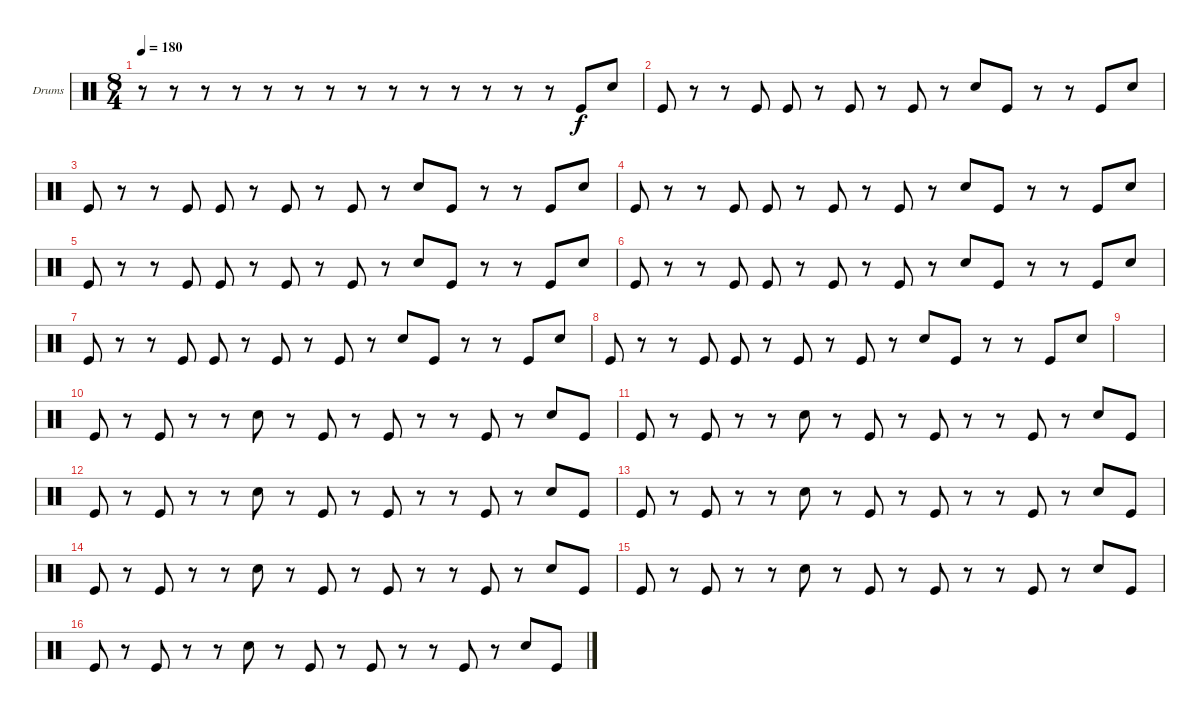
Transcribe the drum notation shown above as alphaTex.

\defaultSystemsLayout 4
\bracketExtendMode groupsimilarinstruments
\firstSystemTrackNameOrientation horizontal
\otherSystemsTrackNameOrientation horizontal
\track ("Drumkit" "Drums") {instrument percussion}
\staff {score}
\articulation defaults
\ts (8 4)
\tempo 180
\clef neutral
\ks c
r.8{dy f} r.8 r.8 r.8 r.8 r.8 r.8 r.8 r.8 r.8 r.8 r.8 r.8 r.8 "Kick (hit)".8 "Snare (hit) 2".8 |
"Kick (hit)".8 r.8 r.8 "Kick (hit)".8 "Kick (hit)".8 r.8 "Kick (hit)".8 r.8 "Kick (hit)".8 r.8 "Snare (hit) 2".8 "Kick (hit)".8 r.8 r.8 "Kick (hit)".8 "Snare (hit) 2".8 |
"Kick (hit)".8 r.8 r.8 "Kick (hit)".8 "Kick (hit)".8 r.8 "Kick (hit)".8 r.8 "Kick (hit)".8 r.8 "Snare (hit) 2".8 "Kick (hit)".8 r.8 r.8 "Kick (hit)".8 "Snare (hit) 2".8 |
"Kick (hit)".8 r.8 r.8 "Kick (hit)".8 "Kick (hit)".8 r.8 "Kick (hit)".8 r.8 "Kick (hit)".8 r.8 "Snare (hit) 2".8 "Kick (hit)".8 r.8 r.8 "Kick (hit)".8 "Snare (hit) 2".8 |
"Kick (hit)".8 r.8 r.8 "Kick (hit)".8 "Kick (hit)".8 r.8 "Kick (hit)".8 r.8 "Kick (hit)".8 r.8 "Snare (hit) 2".8 "Kick (hit)".8 r.8 r.8 "Kick (hit)".8 "Snare (hit) 2".8 |
"Kick (hit)".8 r.8 r.8 "Kick (hit)".8 "Kick (hit)".8 r.8 "Kick (hit)".8 r.8 "Kick (hit)".8 r.8 "Snare (hit) 2".8 "Kick (hit)".8 r.8 r.8 "Kick (hit)".8 "Snare (hit) 2".8 |
"Kick (hit)".8 r.8 r.8 "Kick (hit)".8 "Kick (hit)".8 r.8 "Kick (hit)".8 r.8 "Kick (hit)".8 r.8 "Snare (hit) 2".8 "Kick (hit)".8 r.8 r.8 "Kick (hit)".8 "Snare (hit) 2".8 |
"Kick (hit)".8 r.8 r.8 "Kick (hit)".8 "Kick (hit)".8 r.8 "Kick (hit)".8 r.8 "Kick (hit)".8 r.8 "Snare (hit) 2".8 "Kick (hit)".8 r.8 r.8 "Kick (hit)".8 "Snare (hit) 2".8 |
|
"Kick (hit)".8 r.8 "Kick (hit)".8 r.8 r.8 "Snare (hit) 2".8 r.8 "Kick (hit)".8 r.8 "Kick (hit)".8 r.8 r.8 "Kick (hit)".8 r.8 "Snare (hit) 2".8 "Kick (hit)".8 |
"Kick (hit)".8 r.8 "Kick (hit)".8 r.8 r.8 "Snare (hit) 2".8 r.8 "Kick (hit)".8 r.8 "Kick (hit)".8 r.8 r.8 "Kick (hit)".8 r.8 "Snare (hit) 2".8 "Kick (hit)".8 |
"Kick (hit)".8 r.8 "Kick (hit)".8 r.8 r.8 "Snare (hit) 2".8 r.8 "Kick (hit)".8 r.8 "Kick (hit)".8 r.8 r.8 "Kick (hit)".8 r.8 "Snare (hit) 2".8 "Kick (hit)".8 |
"Kick (hit)".8 r.8 "Kick (hit)".8 r.8 r.8 "Snare (hit) 2".8 r.8 "Kick (hit)".8 r.8 "Kick (hit)".8 r.8 r.8 "Kick (hit)".8 r.8 "Snare (hit) 2".8 "Kick (hit)".8 |
"Kick (hit)".8 r.8 "Kick (hit)".8 r.8 r.8 "Snare (hit) 2".8 r.8 "Kick (hit)".8 r.8 "Kick (hit)".8 r.8 r.8 "Kick (hit)".8 r.8 "Snare (hit) 2".8 "Kick (hit)".8 |
"Kick (hit)".8 r.8 "Kick (hit)".8 r.8 r.8 "Snare (hit) 2".8 r.8 "Kick (hit)".8 r.8 "Kick (hit)".8 r.8 r.8 "Kick (hit)".8 r.8 "Snare (hit) 2".8 "Kick (hit)".8 |
"Kick (hit)".8 r.8 "Kick (hit)".8 r.8 r.8 "Snare (hit) 2".8 r.8 "Kick (hit)".8 r.8 "Kick (hit)".8 r.8 r.8 "Kick (hit)".8 r.8 "Snare (hit) 2".8 "Kick (hit)".8
